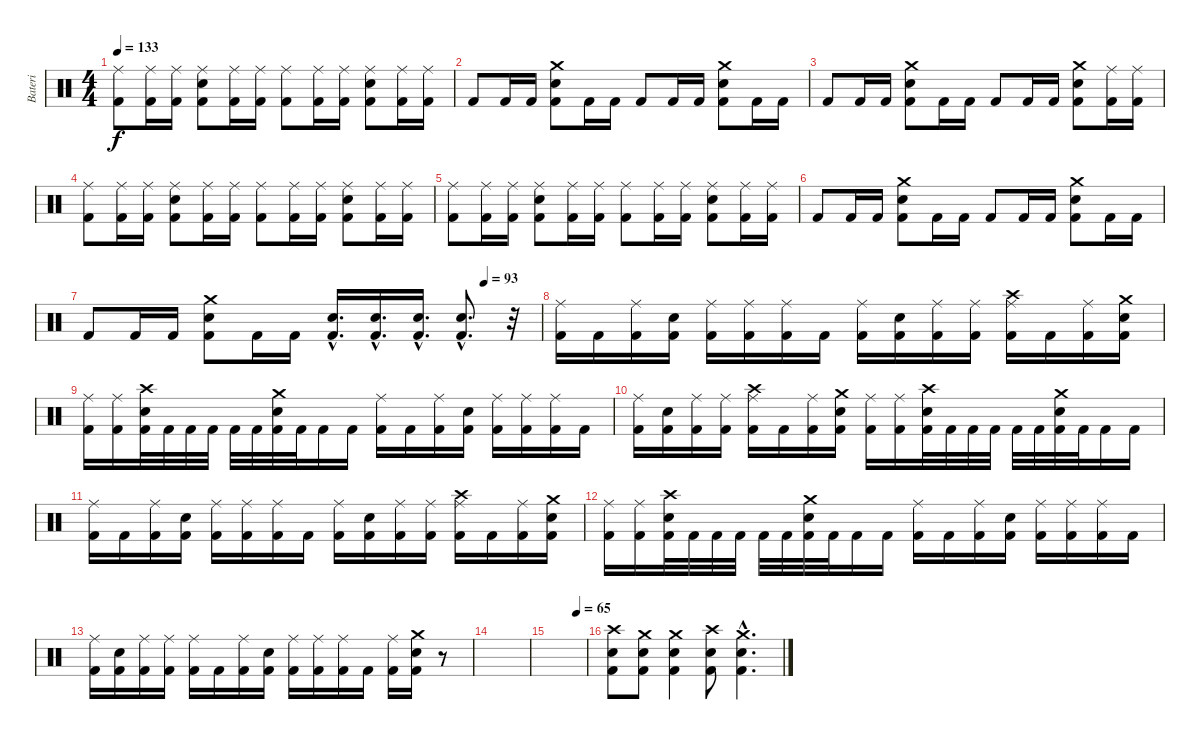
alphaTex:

\track ("Bateri" "Bateri") {instrument percussion}
\staff {score}
\articulation defaults
\ts (4 4)
\tempo 133
\clef neutral
\ks c
("Ride (middle)" "Kick (hit) 2").8{dy f} ("Ride (middle)" "Kick (hit) 2").16 ("Ride (middle)" "Kick (hit) 2").16 ("Snare (hit) 2" "Ride (middle)" "Kick (hit) 2").8 ("Ride (middle)" "Kick (hit) 2").16 ("Ride (middle)" "Kick (hit) 2").16 ("Ride (middle)" "Kick (hit) 2").8 ("Ride (middle)" "Kick (hit) 2").16 ("Ride (middle)" "Kick (hit) 2").16 ("Snare (hit) 2" "Ride (middle)" "Kick (hit) 2").8 ("Ride (middle)" "Kick (hit) 2").16 ("Ride (middle)" "Kick (hit) 2").16 |
"Kick (hit) 2".8 "Kick (hit) 2".16 "Kick (hit) 2".16 ("Crash medium (hit)" "Snare (hit) 2" "Kick (hit) 2").8 "Kick (hit) 2".16 "Kick (hit) 2".16 "Kick (hit) 2".8 "Kick (hit) 2".16 "Kick (hit) 2".16 ("Crash medium (hit)" "Snare (hit) 2" "Kick (hit) 2").8 "Kick (hit) 2".16 "Kick (hit) 2".16 |
"Kick (hit) 2".8 "Kick (hit) 2".16 "Kick (hit) 2".16 ("Crash medium (hit)" "Snare (hit) 2" "Kick (hit) 2").8 "Kick (hit) 2".16 "Kick (hit) 2".16 "Kick (hit) 2".8 "Kick (hit) 2".16 "Kick (hit) 2".16 ("Crash medium (hit)" "Snare (hit) 2" "Kick (hit) 2").8 ("Ride (middle)" "Kick (hit) 2").16 ("Ride (middle)" "Kick (hit) 2").16 |
("Ride (middle)" "Kick (hit) 2").8 ("Ride (middle)" "Kick (hit) 2").16 ("Ride (middle)" "Kick (hit) 2").16 ("Snare (hit) 2" "Ride (middle)" "Kick (hit) 2").8 ("Ride (middle)" "Kick (hit) 2").16 ("Ride (middle)" "Kick (hit) 2").16 ("Ride (middle)" "Kick (hit) 2").8 ("Ride (middle)" "Kick (hit) 2").16 ("Ride (middle)" "Kick (hit) 2").16 ("Snare (hit) 2" "Ride (middle)" "Kick (hit) 2").8 ("Ride (middle)" "Kick (hit) 2").16 ("Ride (middle)" "Kick (hit) 2").16 |
("Ride (middle)" "Kick (hit) 2").8 ("Ride (middle)" "Kick (hit) 2").16 ("Ride (middle)" "Kick (hit) 2").16 ("Snare (hit) 2" "Ride (middle)" "Kick (hit) 2").8 ("Ride (middle)" "Kick (hit) 2").16 ("Ride (middle)" "Kick (hit) 2").16 ("Ride (middle)" "Kick (hit) 2").8 ("Ride (middle)" "Kick (hit) 2").16 ("Ride (middle)" "Kick (hit) 2").16 ("Snare (hit) 2" "Ride (middle)" "Kick (hit) 2").8 ("Ride (middle)" "Kick (hit) 2").16 ("Ride (middle)" "Kick (hit) 2").16 |
"Kick (hit) 2".8 "Kick (hit) 2".16 "Kick (hit) 2".16 ("Crash medium (hit)" "Snare (hit) 2" "Kick (hit) 2").8 "Kick (hit) 2".16 "Kick (hit) 2".16 "Kick (hit) 2".8 "Kick (hit) 2".16 "Kick (hit) 2".16 ("Crash medium (hit)" "Snare (hit) 2" "Kick (hit) 2").8 "Kick (hit) 2".16 "Kick (hit) 2".16 |
\tempo (93 0.875)
"Kick (hit) 2".8 "Kick (hit) 2".16 "Kick (hit) 2".16 ("Crash medium (hit)" "Snare (hit) 2" "Kick (hit) 2").8 "Kick (hit) 2".16 "Kick (hit) 2".16 ("Snare (hit) 2"{hac} "Kick (hit) 2"{hac}).16{d} ("Snare (hit) 2"{hac} "Kick (hit) 2"{hac}).16{d} ("Snare (hit) 2"{hac} "Kick (hit) 2"{hac}).16{d} ("Snare (hit) 2"{hac} "Kick (hit) 2"{hac}).8{d} r.32 |
("Ride (middle)" "Kick (hit) 2").16 "Kick (hit) 2".16 ("Ride (middle)" "Kick (hit) 2").16 ("Snare (hit) 2" "Kick (hit) 2").16 ("Ride (middle)" "Kick (hit) 2").16 ("Ride (middle)" "Kick (hit) 2").16 ("Ride (middle)" "Kick (hit) 2").16 "Kick (hit) 2".16 ("Ride (middle)" "Kick (hit) 2").16 ("Snare (hit) 2" "Kick (hit) 2").16 ("Ride (middle)" "Kick (hit) 2").16 ("Ride (middle)" "Kick (hit) 2").16 ("Crash high (hit)" "Ride (middle)" "Kick (hit) 2").16 "Kick (hit) 2".16 ("Ride (middle)" "Kick (hit) 2").16 ("Crash medium (hit)" "Snare (hit) 2" "Kick (hit) 2").16 |
("Ride (middle)" "Kick (hit) 2").16 ("Ride (middle)" "Kick (hit) 2").16 ("Crash high (hit)" "Snare (hit) 2" "Kick (hit) 2").32 "Kick (hit) 2".32 "Kick (hit) 2".32 "Kick (hit) 2".32 "Kick (hit) 2".32 "Kick (hit) 2".32 ("Crash medium (hit)" "Snare (hit) 2" "Kick (hit) 2").32 "Kick (hit) 2".32 "Kick (hit) 2".16 "Kick (hit) 2".16 ("Ride (middle)" "Kick (hit) 2").16 "Kick (hit) 2".16 ("Ride (middle)" "Kick (hit) 2").16 ("Snare (hit) 2" "Kick (hit) 2").16 ("Ride (middle)" "Kick (hit) 2").16 ("Ride (middle)" "Kick (hit) 2").16 ("Ride (middle)" "Kick (hit) 2").16 "Kick (hit) 2".16 |
("Ride (middle)" "Kick (hit) 2").16 ("Snare (hit) 2" "Kick (hit) 2").16 ("Ride (middle)" "Kick (hit) 2").16 ("Ride (middle)" "Kick (hit) 2").16 ("Crash high (hit)" "Ride (middle)" "Kick (hit) 2").16 "Kick (hit) 2".16 ("Ride (middle)" "Kick (hit) 2").16 ("Crash medium (hit)" "Snare (hit) 2" "Kick (hit) 2").16 ("Ride (middle)" "Kick (hit) 2").16 ("Ride (middle)" "Kick (hit) 2").16 ("Crash high (hit)" "Snare (hit) 2" "Kick (hit) 2").32 "Kick (hit) 2".32 "Kick (hit) 2".32 "Kick (hit) 2".32 "Kick (hit) 2".32 "Kick (hit) 2".32 ("Crash medium (hit)" "Snare (hit) 2" "Kick (hit) 2").32 "Kick (hit) 2".32 "Kick (hit) 2".16 "Kick (hit) 2".16 |
("Ride (middle)" "Kick (hit) 2").16 "Kick (hit) 2".16 ("Ride (middle)" "Kick (hit) 2").16 ("Snare (hit) 2" "Kick (hit) 2").16 ("Ride (middle)" "Kick (hit) 2").16 ("Ride (middle)" "Kick (hit) 2").16 ("Ride (middle)" "Kick (hit) 2").16 "Kick (hit) 2".16 ("Ride (middle)" "Kick (hit) 2").16 ("Snare (hit) 2" "Kick (hit) 2").16 ("Ride (middle)" "Kick (hit) 2").16 ("Ride (middle)" "Kick (hit) 2").16 ("Crash high (hit)" "Ride (middle)" "Kick (hit) 2").16 "Kick (hit) 2".16 ("Ride (middle)" "Kick (hit) 2").16 ("Crash medium (hit)" "Snare (hit) 2" "Kick (hit) 2").16 |
("Ride (middle)" "Kick (hit) 2").16 ("Ride (middle)" "Kick (hit) 2").16 ("Crash high (hit)" "Snare (hit) 2" "Kick (hit) 2").32 "Kick (hit) 2".32 "Kick (hit) 2".32 "Kick (hit) 2".32 "Kick (hit) 2".32 "Kick (hit) 2".32 ("Crash medium (hit)" "Snare (hit) 2" "Kick (hit) 2").32 "Kick (hit) 2".32 "Kick (hit) 2".16 "Kick (hit) 2".16 ("Ride (middle)" "Kick (hit) 2").16 "Kick (hit) 2".16 ("Ride (middle)" "Kick (hit) 2").16 ("Snare (hit) 2" "Kick (hit) 2").16 ("Ride (middle)" "Kick (hit) 2").16 ("Ride (middle)" "Kick (hit) 2").16 ("Ride (middle)" "Kick (hit) 2").16 "Kick (hit) 2".16 |
("Ride (middle)" "Kick (hit) 2").16 ("Snare (hit) 2" "Kick (hit) 2").16 ("Ride (middle)" "Kick (hit) 2").16 ("Ride (middle)" "Kick (hit) 2").16 ("Ride (middle)" "Kick (hit) 2").16 "Kick (hit) 2".16 ("Ride (middle)" "Kick (hit) 2").16 ("Snare (hit) 2" "Kick (hit) 2").16 ("Ride (middle)" "Kick (hit) 2").16 ("Ride (middle)" "Kick (hit) 2").16 ("Ride (middle)" "Kick (hit) 2").16 "Kick (hit) 2".16 ("Ride (middle)" "Kick (hit) 2").16 ("Crash medium (hit)" "Snare (hit) 2" "Kick (hit) 2").16 r.8 |
|
\tempo (65 0.75)
|
("Crash high (hit)" "Snare (hit) 2" "Kick (hit) 2").8 ("Crash medium (hit)" "Snare (hit) 2" "Kick (hit) 2").8 ("Crash medium (hit)" "Snare (hit) 2" "Kick (hit) 2").4 ("Crash high (hit)" "Snare (hit) 2" "Kick (hit) 2").8 ("Crash medium (hit)"{hac} "Snare (hit) 2"{hac} "Kick (hit) 2"{hac}).4{d}
